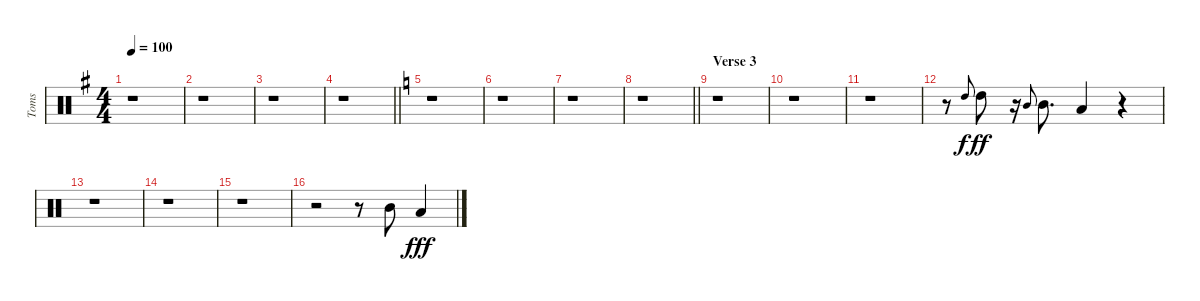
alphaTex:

\track ("Toms" "Toms") {instrument percussion}
\staff {score}
\articulation defaults
\ts (4 4)
\tempo 100
\clef neutral
\ks eminor
r.1{dy ff} |
r.1 |
r.1 |
\barLineRight lightlight
r.1 |
\ks c
r.1 |
r.1 |
r.1 |
\barLineRight lightlight
r.1 |
\section ("" "Verse 3")
\ks aminor
r.1 |
r.1 |
r.1 |
r.8 "High Tom (hit)".8{gr onbeat dy f} "High Tom (hit)".8{dy ff balance 10} r.16 "Mid Tom (hit)".8{gr onbeat} "Mid Tom (hit)".8{d balance 8} "Low Tom (hit)".4{balance 5} r.4 |
r.1 |
r.1 |
r.1 |
r.2 r.8 "Mid Tom (hit)".8{balance 8} "Low Tom (hit)".4{dy fff balance 5}
